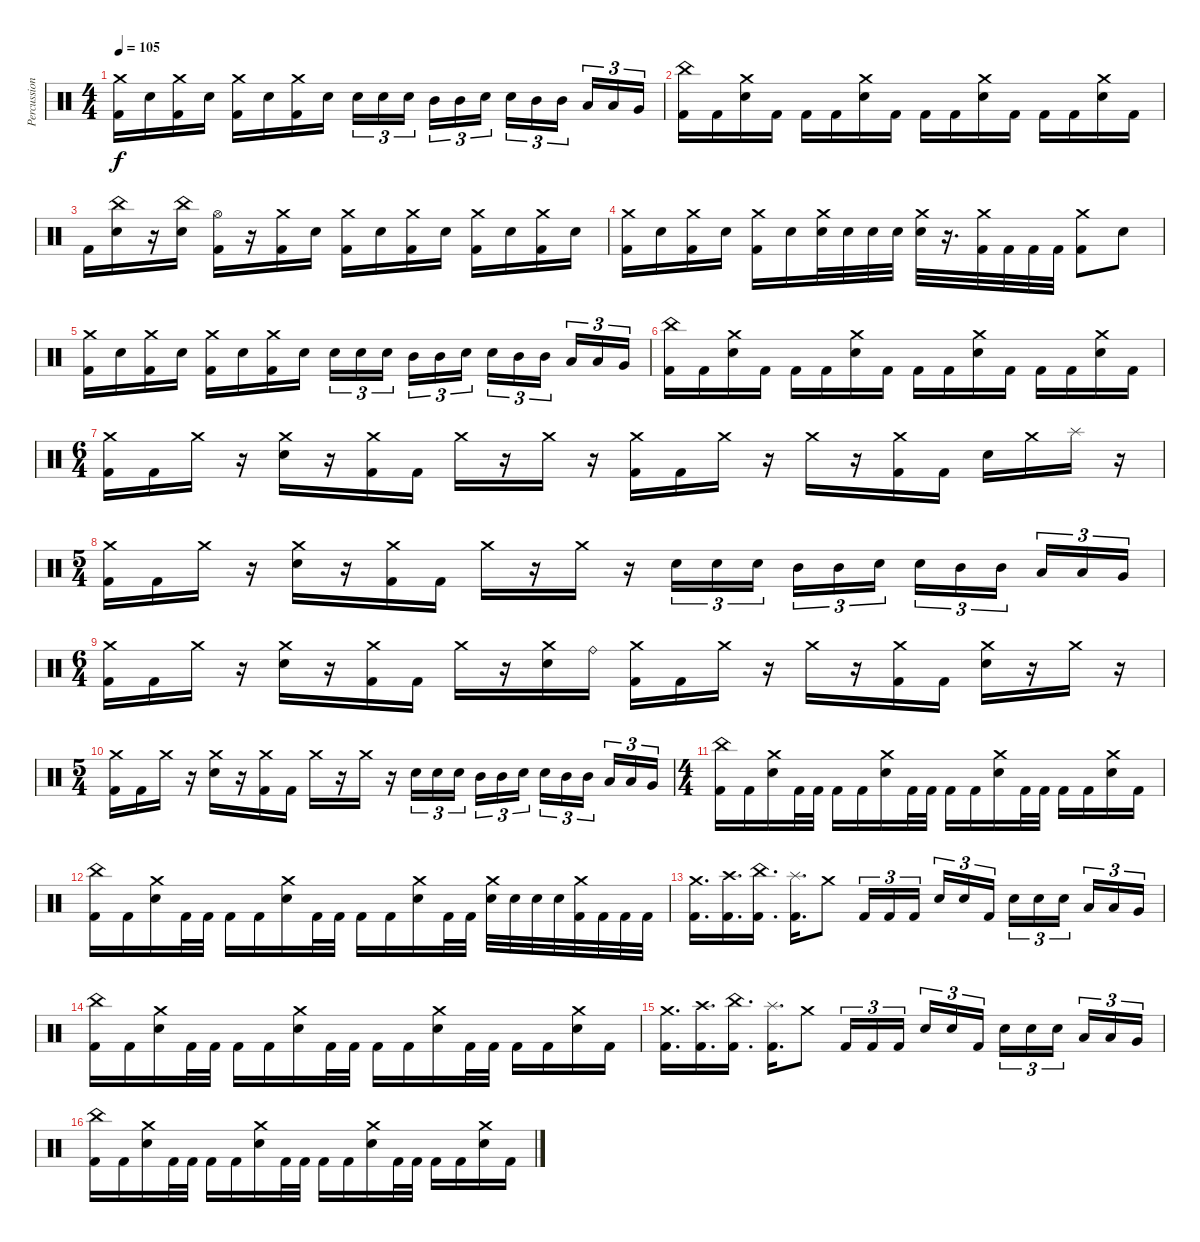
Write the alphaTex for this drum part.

\track ("Percussion" "Percussion") {instrument percussion}
\staff {score}
\articulation defaults
\ts (4 4)
\tempo 105
\clef neutral
\ks c
("Crash medium (hit)" "Kick (hit) 2").16{dy f} "Electric Snare (hit)".16 ("Crash medium (hit)" "Kick (hit) 2").16 "Electric Snare (hit)".16 ("Crash medium (hit)" "Kick (hit) 2").16 "Electric Snare (hit)".16 ("Crash medium (hit)" "Kick (hit) 2").16 "Electric Snare (hit)".16 "Electric Snare (hit)".16{tu (3 2)} "Electric Snare (hit)".16{tu (3 2)} "Electric Snare (hit)".16{tu (3 2) beam splitsecondary} "Mid Tom (hit)".16{tu (3 2)} "Mid Tom (hit)".16{tu (3 2)} "Electric Snare (hit)".16{tu (3 2)} "Electric Snare (hit)".16{tu (3 2)} "Mid Tom (hit)".16{tu (3 2)} "Mid Tom (hit)".16{tu (3 2) beam splitsecondary} "Low Tom (hit)".16{tu (3 2)} "Low Tom (hit)".16{tu (3 2)} "Very Low Tom (hit)".16{tu (3 2)} |
("China (hit)" "Kick (hit) 2").16 "Kick (hit) 2".16 ("Crash medium (hit)" "Electric Snare (hit)").16 "Kick (hit) 2".16 "Kick (hit) 2".16 "Kick (hit) 2".16 ("Crash medium (hit)" "Electric Snare (hit)").16 "Kick (hit) 2".16 "Kick (hit) 2".16 "Kick (hit) 2".16 ("Crash medium (hit)" "Electric Snare (hit)").16 "Kick (hit) 2".16 "Kick (hit) 2".16 "Kick (hit) 2".16 ("Crash medium (hit)" "Electric Snare (hit)").16 "Kick (hit) 2".16 |
"Kick (hit) 2".16 ("China (hit)" "Electric Snare (hit)").16 r.16 ("China (hit)" "Electric Snare (hit)").16 ("Hi-Hat (open)" "Kick (hit) 2").16 r.16 ("Crash medium (hit)" "Kick (hit) 2").16 "Electric Snare (hit)".16 ("Crash medium (hit)" "Kick (hit) 2").16 "Electric Snare (hit)".16 ("Crash medium (hit)" "Kick (hit) 2").16 "Electric Snare (hit)".16 ("Crash medium (hit)" "Kick (hit) 2").16 "Electric Snare (hit)".16 ("Crash medium (hit)" "Kick (hit) 2").16 "Electric Snare (hit)".16 |
("Crash medium (hit)" "Kick (hit) 2").16 "Electric Snare (hit)".16 ("Crash medium (hit)" "Kick (hit) 2").16 "Electric Snare (hit)".16 ("Crash medium (hit)" "Kick (hit) 2").16 "Electric Snare (hit)".16 ("Crash medium (hit)" "Electric Snare (hit)").32 "Electric Snare (hit)".32 "Electric Snare (hit)".32 "Electric Snare (hit)".32 ("Crash medium (hit)" "Electric Snare (hit)").32 r.16{d} ("Crash medium (hit)" "Kick (hit) 2").32 "Kick (hit) 2".32 "Kick (hit) 2".32 "Kick (hit) 2".32 ("Crash medium (hit)" "Kick (hit) 2").8 "Electric Snare (hit)".8 |
("Crash medium (hit)" "Kick (hit) 2").16 "Electric Snare (hit)".16 ("Crash medium (hit)" "Kick (hit) 2").16 "Electric Snare (hit)".16 ("Crash medium (hit)" "Kick (hit) 2").16 "Electric Snare (hit)".16 ("Crash medium (hit)" "Kick (hit) 2").16 "Electric Snare (hit)".16 "Electric Snare (hit)".16{tu (3 2)} "Electric Snare (hit)".16{tu (3 2)} "Electric Snare (hit)".16{tu (3 2) beam splitsecondary} "Mid Tom (hit)".16{tu (3 2)} "Mid Tom (hit)".16{tu (3 2)} "Electric Snare (hit)".16{tu (3 2)} "Electric Snare (hit)".16{tu (3 2)} "Mid Tom (hit)".16{tu (3 2)} "Mid Tom (hit)".16{tu (3 2) beam splitsecondary} "Low Tom (hit)".16{tu (3 2)} "Low Tom (hit)".16{tu (3 2)} "Very Low Tom (hit)".16{tu (3 2)} |
("China (hit)" "Kick (hit) 2").16 "Kick (hit) 2".16 ("Crash medium (hit)" "Electric Snare (hit)").16 "Kick (hit) 2".16 "Kick (hit) 2".16 "Kick (hit) 2".16 ("Crash medium (hit)" "Electric Snare (hit)").16 "Kick (hit) 2".16 "Kick (hit) 2".16 "Kick (hit) 2".16 ("Crash medium (hit)" "Electric Snare (hit)").16 "Kick (hit) 2".16 "Kick (hit) 2".16 "Kick (hit) 2".16 ("Crash medium (hit)" "Electric Snare (hit)").16 "Kick (hit) 2".16 |
\ts (6 4)
("Crash medium (hit)" "Kick (hit) 2").16 "Kick (hit) 2".16 "Crash medium (hit)".16 r.16 ("Crash medium (hit)" "Electric Snare (hit)").16 r.16 ("Crash medium (hit)" "Kick (hit) 2").16 "Kick (hit) 2".16 "Crash medium (hit)".16 r.16 "Crash medium (hit)".16 r.16 ("Crash medium (hit)" "Kick (hit) 2").16 "Kick (hit) 2".16 "Crash medium (hit)".16 r.16 "Crash medium (hit)".16 r.16 ("Crash medium (hit)" "Kick (hit) 2").16 "Kick (hit) 2".16 "Electric Snare (hit)".16 "Crash medium (hit)".16 "Splash (hit)".16 r.16 |
\ts (5 4)
("Crash medium (hit)" "Kick (hit) 2").16 "Kick (hit) 2".16 "Crash medium (hit)".16 r.16 ("Crash medium (hit)" "Electric Snare (hit)").16 r.16 ("Crash medium (hit)" "Kick (hit) 2").16 "Kick (hit) 2".16 "Crash medium (hit)".16 r.16 "Crash medium (hit)".16 r.16 "Electric Snare (hit)".16{tu (3 2)} "Electric Snare (hit)".16{tu (3 2)} "Electric Snare (hit)".16{tu (3 2) beam splitsecondary} "Mid Tom (hit)".16{tu (3 2)} "Mid Tom (hit)".16{tu (3 2)} "Electric Snare (hit)".16{tu (3 2)} "Electric Snare (hit)".16{tu (3 2)} "Mid Tom (hit)".16{tu (3 2)} "Mid Tom (hit)".16{tu (3 2) beam splitsecondary} "Low Tom (hit)".16{tu (3 2)} "Low Tom (hit)".16{tu (3 2)} "Very Low Tom (hit)".16{tu (3 2)} |
\ts (6 4)
("Crash medium (hit)" "Kick (hit) 2").16 "Kick (hit) 2".16 "Crash medium (hit)".16 r.16 ("Crash medium (hit)" "Electric Snare (hit)").16 r.16 ("Crash medium (hit)" "Kick (hit) 2").16 "Kick (hit) 2".16 "Crash medium (hit)".16 r.16 ("Crash medium (hit)" "Electric Snare (hit)").16 "Ride (bell)".16 ("Crash medium (hit)" "Kick (hit) 2").16 "Kick (hit) 2".16 "Crash medium (hit)".16 r.16 "Crash medium (hit)".16 r.16 ("Crash medium (hit)" "Kick (hit) 2").16 "Kick (hit) 2".16 ("Crash medium (hit)" "Electric Snare (hit)").16 r.16 "Crash medium (hit)".16 r.16 |
\ts (5 4)
("Crash medium (hit)" "Kick (hit) 2").16 "Kick (hit) 2".16 "Crash medium (hit)".16 r.16 ("Crash medium (hit)" "Electric Snare (hit)").16 r.16 ("Crash medium (hit)" "Kick (hit) 2").16 "Kick (hit) 2".16 "Crash medium (hit)".16 r.16 "Crash medium (hit)".16 r.16 "Electric Snare (hit)".16{tu (3 2)} "Electric Snare (hit)".16{tu (3 2)} "Electric Snare (hit)".16{tu (3 2) beam splitsecondary} "Mid Tom (hit)".16{tu (3 2)} "Mid Tom (hit)".16{tu (3 2)} "Electric Snare (hit)".16{tu (3 2)} "Electric Snare (hit)".16{tu (3 2)} "Mid Tom (hit)".16{tu (3 2)} "Mid Tom (hit)".16{tu (3 2) beam splitsecondary} "Low Tom (hit)".16{tu (3 2)} "Low Tom (hit)".16{tu (3 2)} "Very Low Tom (hit)".16{tu (3 2)} |
\ts (4 4)
("China (hit)" "Kick (hit) 2").16 "Kick (hit) 2".16 ("Crash medium (hit)" "Electric Snare (hit)").16 "Kick (hit) 2".32 "Kick (hit) 2".32 "Kick (hit) 2".16 "Kick (hit) 2".16 ("Crash medium (hit)" "Electric Snare (hit)").16 "Kick (hit) 2".32 "Kick (hit) 2".32 "Kick (hit) 2".16 "Kick (hit) 2".16 ("Crash medium (hit)" "Electric Snare (hit)").16 "Kick (hit) 2".32 "Kick (hit) 2".32 "Kick (hit) 2".16 "Kick (hit) 2".16 ("Crash medium (hit)" "Electric Snare (hit)").16 "Kick (hit) 2".16 |
("China (hit)" "Kick (hit) 2").16 "Kick (hit) 2".16 ("Crash medium (hit)" "Electric Snare (hit)").16 "Kick (hit) 2".32 "Kick (hit) 2".32 "Kick (hit) 2".16 "Kick (hit) 2".16 ("Crash medium (hit)" "Electric Snare (hit)").16 "Kick (hit) 2".32 "Kick (hit) 2".32 "Kick (hit) 2".16 "Kick (hit) 2".16 ("Crash medium (hit)" "Electric Snare (hit)").16 "Kick (hit) 2".32 "Kick (hit) 2".32 ("Crash medium (hit)" "Electric Snare (hit)").32 "Electric Snare (hit)".32 "Electric Snare (hit)".32 "Electric Snare (hit)".32 ("Crash medium (hit)" "Kick (hit) 2").32 "Kick (hit) 2".32 "Kick (hit) 2".32 "Kick (hit) 2".32 |
("Crash medium (hit)" "Kick (hit) 2").16{d} ("Crash high (hit)" "Kick (hit) 2").16{d} ("China (hit)" "Kick (hit) 2").16{d} ("Splash (hit)" "Kick (hit) 2").16{d} "Crash medium (hit)".8 "Kick (hit) 2".16{tu (3 2)} "Kick (hit) 2".16{tu (3 2)} "Kick (hit) 2".16{tu (3 2) beam splitsecondary} "Electric Snare (hit)".16{tu (3 2)} "Electric Snare (hit)".16{tu (3 2)} "Kick (hit) 2".16{tu (3 2)} "Electric Snare (hit)".16{tu (3 2)} "Electric Snare (hit)".16{tu (3 2)} "Electric Snare (hit)".16{tu (3 2) beam splitsecondary} "Low Tom (hit)".16{tu (3 2)} "Low Tom (hit)".16{tu (3 2)} "Very Low Tom (hit)".16{tu (3 2)} |
("China (hit)" "Kick (hit) 2").16 "Kick (hit) 2".16 ("Crash medium (hit)" "Electric Snare (hit)").16 "Kick (hit) 2".32 "Kick (hit) 2".32 "Kick (hit) 2".16 "Kick (hit) 2".16 ("Crash medium (hit)" "Electric Snare (hit)").16 "Kick (hit) 2".32 "Kick (hit) 2".32 "Kick (hit) 2".16 "Kick (hit) 2".16 ("Crash medium (hit)" "Electric Snare (hit)").16 "Kick (hit) 2".32 "Kick (hit) 2".32 "Kick (hit) 2".16 "Kick (hit) 2".16 ("Crash medium (hit)" "Electric Snare (hit)").16 "Kick (hit) 2".16 |
("Crash medium (hit)" "Kick (hit) 2").16{d} ("Crash high (hit)" "Kick (hit) 2").16{d} ("China (hit)" "Kick (hit) 2").16{d} ("Splash (hit)" "Kick (hit) 2").16{d} "Crash medium (hit)".8 "Kick (hit) 2".16{tu (3 2)} "Kick (hit) 2".16{tu (3 2)} "Kick (hit) 2".16{tu (3 2) beam splitsecondary} "Electric Snare (hit)".16{tu (3 2)} "Electric Snare (hit)".16{tu (3 2)} "Kick (hit) 2".16{tu (3 2)} "Electric Snare (hit)".16{tu (3 2)} "Electric Snare (hit)".16{tu (3 2)} "Electric Snare (hit)".16{tu (3 2) beam splitsecondary} "Low Tom (hit)".16{tu (3 2)} "Low Tom (hit)".16{tu (3 2)} "Very Low Tom (hit)".16{tu (3 2)} |
("China (hit)" "Kick (hit) 2").16 "Kick (hit) 2".16 ("Crash medium (hit)" "Electric Snare (hit)").16 "Kick (hit) 2".32 "Kick (hit) 2".32 "Kick (hit) 2".16 "Kick (hit) 2".16 ("Crash medium (hit)" "Electric Snare (hit)").16 "Kick (hit) 2".32 "Kick (hit) 2".32 "Kick (hit) 2".16 "Kick (hit) 2".16 ("Crash medium (hit)" "Electric Snare (hit)").16 "Kick (hit) 2".32 "Kick (hit) 2".32 "Kick (hit) 2".16 "Kick (hit) 2".16 ("Crash medium (hit)" "Electric Snare (hit)").16 "Kick (hit) 2".16
